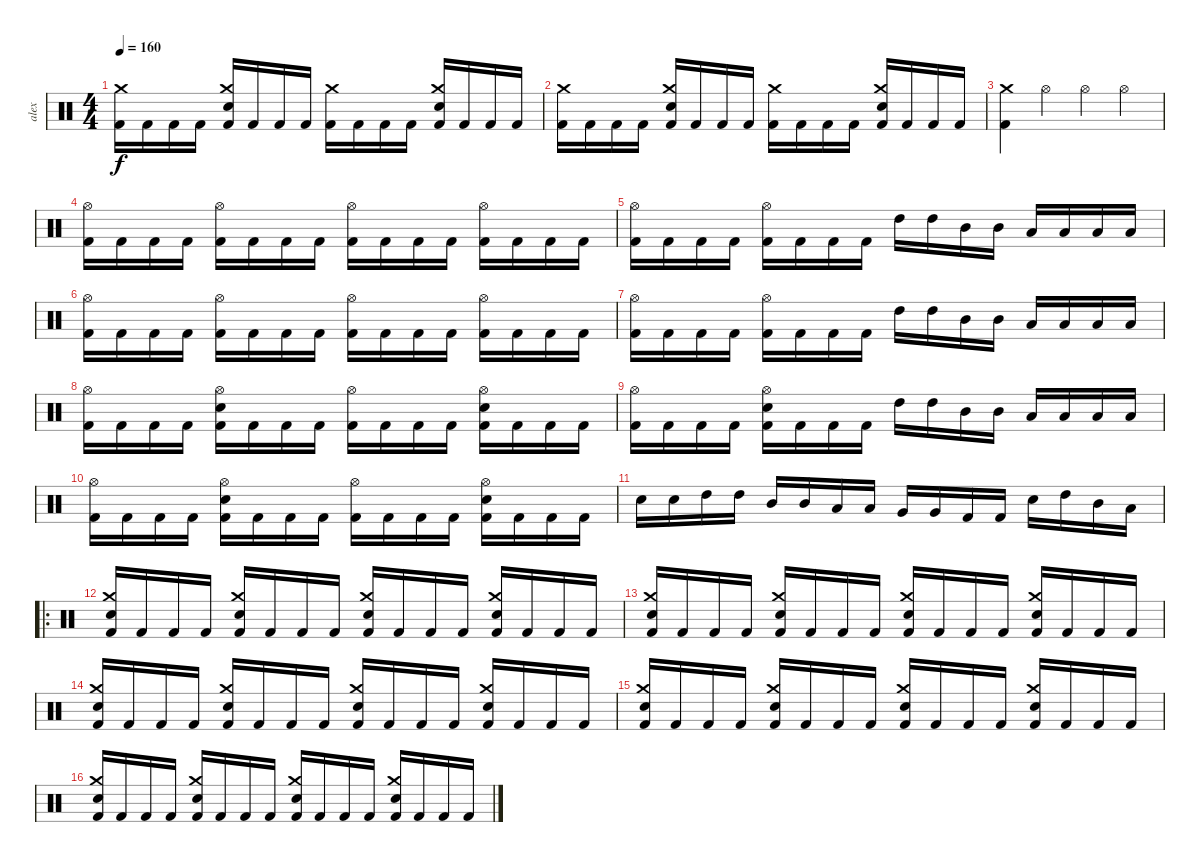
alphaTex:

\track ("alex" "alex") {instrument percussion}
\staff {score}
\articulation defaults
\ts (4 4)
\tempo 160
\clef neutral
\ks c
("Kick (hit) 2" "Crash medium (hit)").16{dy f} "Kick (hit) 2".16 "Kick (hit) 2".16 "Kick (hit) 2".16 ("Kick (hit) 2" "Crash medium (hit)" "Electric Snare (hit)").16 "Kick (hit) 2".16 "Kick (hit) 2".16 "Kick (hit) 2".16 ("Kick (hit) 2" "Crash medium (hit)").16 "Kick (hit) 2".16 "Kick (hit) 2".16 "Kick (hit) 2".16 ("Kick (hit) 2" "Crash medium (hit)" "Electric Snare (hit)").16 "Kick (hit) 2".16 "Kick (hit) 2".16 "Kick (hit) 2".16 |
("Kick (hit) 2" "Crash medium (hit)").16 "Kick (hit) 2".16 "Kick (hit) 2".16 "Kick (hit) 2".16 ("Kick (hit) 2" "Crash medium (hit)" "Electric Snare (hit)").16 "Kick (hit) 2".16 "Kick (hit) 2".16 "Kick (hit) 2".16 ("Kick (hit) 2" "Crash medium (hit)").16 "Kick (hit) 2".16 "Kick (hit) 2".16 "Kick (hit) 2".16 ("Kick (hit) 2" "Crash medium (hit)" "Electric Snare (hit)").16 "Kick (hit) 2".16 "Kick (hit) 2".16 "Kick (hit) 2".16 |
("Crash medium (hit)" "Kick (hit) 2").4 "Hi-Hat (open)".4 "Hi-Hat (open)".4 "Hi-Hat (open)".4 |
("Kick (hit) 2" "Hi-Hat (open)").16 "Kick (hit) 2".16 "Kick (hit) 2".16 "Kick (hit) 2".16 ("Kick (hit) 2" "Hi-Hat (open)").16 "Kick (hit) 2".16 "Kick (hit) 2".16 "Kick (hit) 2".16 ("Kick (hit) 2" "Hi-Hat (open)").16 "Kick (hit) 2".16 "Kick (hit) 2".16 "Kick (hit) 2".16 ("Kick (hit) 2" "Hi-Hat (open)").16 "Kick (hit) 2".16 "Kick (hit) 2".16 "Kick (hit) 2".16 |
("Kick (hit) 2" "Hi-Hat (open)").16 "Kick (hit) 2".16 "Kick (hit) 2".16 "Kick (hit) 2".16 ("Kick (hit) 2" "Hi-Hat (open)").16 "Kick (hit) 2".16 "Kick (hit) 2".16 "Kick (hit) 2".16 "High Tom (hit)".16 "High Tom (hit)".16 "Mid Tom (hit)".16 "Mid Tom (hit)".16 "Low Tom (hit)".16 "Low Tom (hit)".16 "Low Tom (hit)".16 "Low Tom (hit)".16 |
("Kick (hit) 2" "Hi-Hat (open)").16 "Kick (hit) 2".16 "Kick (hit) 2".16 "Kick (hit) 2".16 ("Kick (hit) 2" "Hi-Hat (open)").16 "Kick (hit) 2".16 "Kick (hit) 2".16 "Kick (hit) 2".16 ("Kick (hit) 2" "Hi-Hat (open)").16 "Kick (hit) 2".16 "Kick (hit) 2".16 "Kick (hit) 2".16 ("Kick (hit) 2" "Hi-Hat (open)").16 "Kick (hit) 2".16 "Kick (hit) 2".16 "Kick (hit) 2".16 |
("Kick (hit) 2" "Hi-Hat (open)").16 "Kick (hit) 2".16 "Kick (hit) 2".16 "Kick (hit) 2".16 ("Kick (hit) 2" "Hi-Hat (open)").16 "Kick (hit) 2".16 "Kick (hit) 2".16 "Kick (hit) 2".16 "High Tom (hit)".16 "High Tom (hit)".16 "Mid Tom (hit)".16 "Mid Tom (hit)".16 "Low Tom (hit)".16 "Low Tom (hit)".16 "Low Tom (hit)".16 "Low Tom (hit)".16 |
("Kick (hit) 2" "Hi-Hat (open)").16 "Kick (hit) 2".16 "Kick (hit) 2".16 "Kick (hit) 2".16 ("Kick (hit) 2" "Hi-Hat (open)" "Electric Snare (hit)").16 "Kick (hit) 2".16 "Kick (hit) 2".16 "Kick (hit) 2".16 ("Kick (hit) 2" "Hi-Hat (open)").16 "Kick (hit) 2".16 "Kick (hit) 2".16 "Kick (hit) 2".16 ("Kick (hit) 2" "Hi-Hat (open)" "Electric Snare (hit)").16 "Kick (hit) 2".16 "Kick (hit) 2".16 "Kick (hit) 2".16 |
("Kick (hit) 2" "Hi-Hat (open)").16 "Kick (hit) 2".16 "Kick (hit) 2".16 "Kick (hit) 2".16 ("Kick (hit) 2" "Hi-Hat (open)" "Electric Snare (hit)").16 "Kick (hit) 2".16 "Kick (hit) 2".16 "Kick (hit) 2".16 "High Tom (hit)".16 "High Tom (hit)".16 "Mid Tom (hit)".16 "Mid Tom (hit)".16 "Low Tom (hit)".16 "Low Tom (hit)".16 "Low Tom (hit)".16 "Low Tom (hit)".16 |
("Kick (hit) 2" "Hi-Hat (open)").16 "Kick (hit) 2".16 "Kick (hit) 2".16 "Kick (hit) 2".16 ("Kick (hit) 2" "Hi-Hat (open)" "Electric Snare (hit)").16 "Kick (hit) 2".16 "Kick (hit) 2".16 "Kick (hit) 2".16 ("Kick (hit) 2" "Hi-Hat (open)").16 "Kick (hit) 2".16 "Kick (hit) 2".16 "Kick (hit) 2".16 ("Kick (hit) 2" "Hi-Hat (open)" "Electric Snare (hit)").16 "Kick (hit) 2".16 "Kick (hit) 2".16 "Kick (hit) 2".16 |
"Electric Snare (hit)".16 "Electric Snare (hit)".16 "High Tom (hit)".16 "High Tom (hit)".16 "Mid Tom (hit)".16 "Mid Tom (hit)".16 "Low Tom (hit)".16 "Low Tom (hit)".16 "Very Low Tom (hit)".16 "Very Low Tom (hit)".16 "Kick (hit) 2".16 "Kick (hit) 2".16 "Snare (hit) 2".16 "High Tom (hit)".16 "Mid Tom (hit)".16 "Low Tom (hit)".16 |
\ro
("Electric Snare (hit)" "Kick (hit) 2" "Crash medium (hit)").16 "Kick (hit) 2".16 "Kick (hit) 2".16 "Kick (hit) 2".16 ("Electric Snare (hit)" "Kick (hit) 2" "Crash medium (hit)").16 "Kick (hit) 2".16 "Kick (hit) 2".16 "Kick (hit) 2".16 ("Electric Snare (hit)" "Kick (hit) 2" "Crash medium (hit)").16 "Kick (hit) 2".16 "Kick (hit) 2".16 "Kick (hit) 2".16 ("Electric Snare (hit)" "Kick (hit) 2" "Crash medium (hit)").16 "Kick (hit) 2".16 "Kick (hit) 2".16 "Kick (hit) 2".16 |
("Electric Snare (hit)" "Kick (hit) 2" "Crash medium (hit)").16 "Kick (hit) 2".16 "Kick (hit) 2".16 "Kick (hit) 2".16 ("Electric Snare (hit)" "Kick (hit) 2" "Crash medium (hit)").16 "Kick (hit) 2".16 "Kick (hit) 2".16 "Kick (hit) 2".16 ("Electric Snare (hit)" "Kick (hit) 2" "Crash medium (hit)").16 "Kick (hit) 2".16 "Kick (hit) 2".16 "Kick (hit) 2".16 ("Electric Snare (hit)" "Kick (hit) 2" "Crash medium (hit)").16 "Kick (hit) 2".16 "Kick (hit) 2".16 "Kick (hit) 2".16 |
("Electric Snare (hit)" "Kick (hit) 2" "Crash medium (hit)").16 "Kick (hit) 2".16 "Kick (hit) 2".16 "Kick (hit) 2".16 ("Electric Snare (hit)" "Kick (hit) 2" "Crash medium (hit)").16 "Kick (hit) 2".16 "Kick (hit) 2".16 "Kick (hit) 2".16 ("Electric Snare (hit)" "Kick (hit) 2" "Crash medium (hit)").16 "Kick (hit) 2".16 "Kick (hit) 2".16 "Kick (hit) 2".16 ("Electric Snare (hit)" "Kick (hit) 2" "Crash medium (hit)").16 "Kick (hit) 2".16 "Kick (hit) 2".16 "Kick (hit) 2".16 |
("Electric Snare (hit)" "Kick (hit) 2" "Crash medium (hit)").16 "Kick (hit) 2".16 "Kick (hit) 2".16 "Kick (hit) 2".16 ("Electric Snare (hit)" "Kick (hit) 2" "Crash medium (hit)").16 "Kick (hit) 2".16 "Kick (hit) 2".16 "Kick (hit) 2".16 ("Electric Snare (hit)" "Kick (hit) 2" "Crash medium (hit)").16 "Kick (hit) 2".16 "Kick (hit) 2".16 "Kick (hit) 2".16 ("Electric Snare (hit)" "Kick (hit) 2" "Crash medium (hit)").16 "Kick (hit) 2".16 "Kick (hit) 2".16 "Kick (hit) 2".16 |
("Electric Snare (hit)" "Kick (hit) 2" "Crash medium (hit)").16 "Kick (hit) 2".16 "Kick (hit) 2".16 "Kick (hit) 2".16 ("Electric Snare (hit)" "Kick (hit) 2" "Crash medium (hit)").16 "Kick (hit) 2".16 "Kick (hit) 2".16 "Kick (hit) 2".16 ("Electric Snare (hit)" "Kick (hit) 2" "Crash medium (hit)").16 "Kick (hit) 2".16 "Kick (hit) 2".16 "Kick (hit) 2".16 ("Electric Snare (hit)" "Kick (hit) 2" "Crash medium (hit)").16 "Kick (hit) 2".16 "Kick (hit) 2".16 "Kick (hit) 2".16
